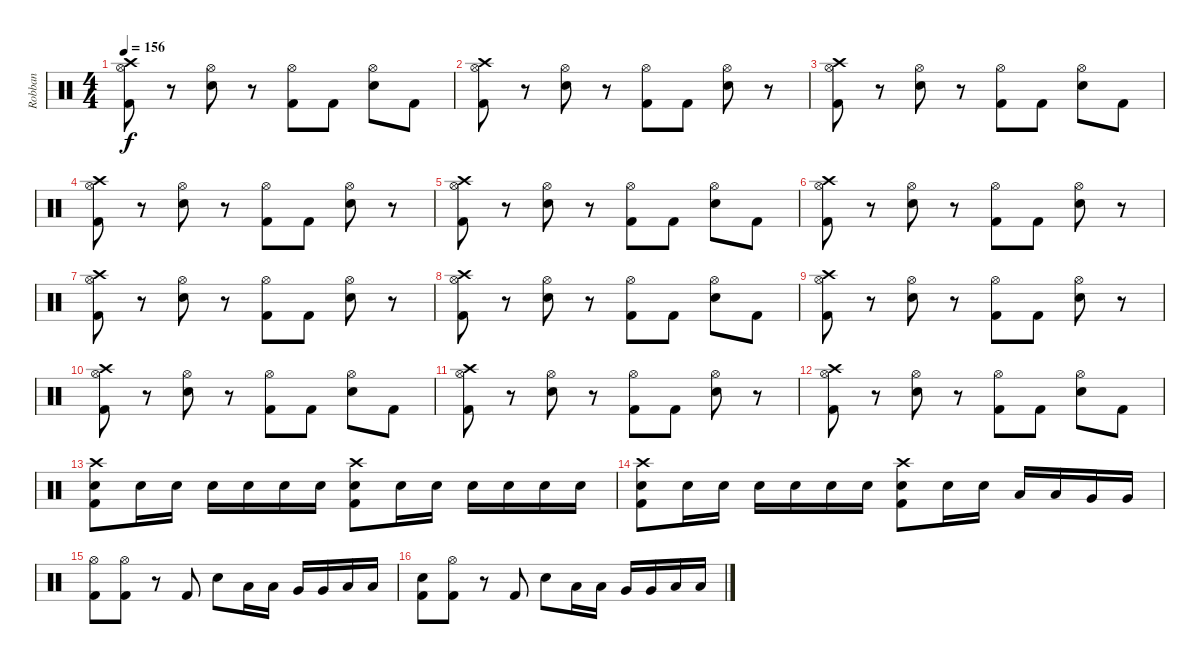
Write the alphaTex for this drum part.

\track ("Robban" "Robban") {instrument percussion}
\staff {score}
\articulation defaults
\ts (4 4)
\tempo 156
\clef neutral
\ks c
("Crash high (hit)" "Hi-Hat (open)" "Kick (hit) 2").8{dy f} r.8 ("Hi-Hat (open)" "Electric Snare (hit)").8 r.8 ("Hi-Hat (open)" "Kick (hit) 2").8 "Kick (hit) 2".8 ("Hi-Hat (open)" "Electric Snare (hit)").8 "Kick (hit) 2".8 |
("Crash high (hit)" "Hi-Hat (open)" "Kick (hit) 2").8 r.8 ("Hi-Hat (open)" "Electric Snare (hit)").8 r.8 ("Hi-Hat (open)" "Kick (hit) 2").8 "Kick (hit) 2".8 ("Hi-Hat (open)" "Electric Snare (hit)").8 r.8 |
("Crash high (hit)" "Hi-Hat (open)" "Kick (hit) 2").8 r.8 ("Hi-Hat (open)" "Electric Snare (hit)").8 r.8 ("Hi-Hat (open)" "Kick (hit) 2").8 "Kick (hit) 2".8 ("Hi-Hat (open)" "Electric Snare (hit)").8 "Kick (hit) 2".8 |
("Crash high (hit)" "Hi-Hat (open)" "Kick (hit) 2").8 r.8 ("Hi-Hat (open)" "Electric Snare (hit)").8 r.8 ("Hi-Hat (open)" "Kick (hit) 2").8 "Kick (hit) 2".8 ("Hi-Hat (open)" "Electric Snare (hit)").8 r.8 |
("Crash high (hit)" "Hi-Hat (open)" "Kick (hit) 2").8 r.8 ("Hi-Hat (open)" "Electric Snare (hit)").8 r.8 ("Hi-Hat (open)" "Kick (hit) 2").8 "Kick (hit) 2".8 ("Hi-Hat (open)" "Electric Snare (hit)").8 "Kick (hit) 2".8 |
("Crash high (hit)" "Hi-Hat (open)" "Kick (hit) 2").8 r.8 ("Hi-Hat (open)" "Electric Snare (hit)").8 r.8 ("Hi-Hat (open)" "Kick (hit) 2").8 "Kick (hit) 2".8 ("Hi-Hat (open)" "Electric Snare (hit)").8 r.8 |
("Crash high (hit)" "Hi-Hat (open)" "Kick (hit) 2").8 r.8 ("Hi-Hat (open)" "Electric Snare (hit)").8 r.8 ("Hi-Hat (open)" "Kick (hit) 2").8 "Kick (hit) 2".8 ("Hi-Hat (open)" "Electric Snare (hit)").8 r.8 |
("Crash high (hit)" "Hi-Hat (open)" "Kick (hit) 2").8 r.8 ("Hi-Hat (open)" "Electric Snare (hit)").8 r.8 ("Hi-Hat (open)" "Kick (hit) 2").8 "Kick (hit) 2".8 ("Hi-Hat (open)" "Electric Snare (hit)").8 "Kick (hit) 2".8 |
("Crash high (hit)" "Hi-Hat (open)" "Kick (hit) 2").8 r.8 ("Hi-Hat (open)" "Electric Snare (hit)").8 r.8 ("Hi-Hat (open)" "Kick (hit) 2").8 "Kick (hit) 2".8 ("Hi-Hat (open)" "Electric Snare (hit)").8 r.8 |
("Crash high (hit)" "Hi-Hat (open)" "Kick (hit) 2").8 r.8 ("Hi-Hat (open)" "Electric Snare (hit)").8 r.8 ("Hi-Hat (open)" "Kick (hit) 2").8 "Kick (hit) 2".8 ("Hi-Hat (open)" "Electric Snare (hit)").8 "Kick (hit) 2".8 |
("Crash high (hit)" "Hi-Hat (open)" "Kick (hit) 2").8 r.8 ("Hi-Hat (open)" "Electric Snare (hit)").8 r.8 ("Hi-Hat (open)" "Kick (hit) 2").8 "Kick (hit) 2".8 ("Hi-Hat (open)" "Electric Snare (hit)").8 r.8 |
("Crash high (hit)" "Hi-Hat (open)" "Kick (hit) 2").8 r.8 ("Hi-Hat (open)" "Electric Snare (hit)").8 r.8 ("Hi-Hat (open)" "Kick (hit) 2").8 "Kick (hit) 2".8 ("Hi-Hat (open)" "Electric Snare (hit)").8 "Kick (hit) 2".8 |
("Crash high (hit)" "Electric Snare (hit)" "Kick (hit) 2").8 "Electric Snare (hit)".16 "Electric Snare (hit)".16 "Electric Snare (hit)".16 "Electric Snare (hit)".16 "Electric Snare (hit)".16 "Electric Snare (hit)".16 ("Crash high (hit)" "Electric Snare (hit)" "Kick (hit) 2").8 "Electric Snare (hit)".16 "Electric Snare (hit)".16 "Electric Snare (hit)".16 "Electric Snare (hit)".16 "Electric Snare (hit)".16 "Electric Snare (hit)".16 |
("Crash high (hit)" "Electric Snare (hit)" "Kick (hit) 2").8 "Electric Snare (hit)".16 "Electric Snare (hit)".16 "Electric Snare (hit)".16 "Electric Snare (hit)".16 "Electric Snare (hit)".16 "Electric Snare (hit)".16 ("Crash high (hit)" "Electric Snare (hit)" "Kick (hit) 2").8 "Electric Snare (hit)".16 "Electric Snare (hit)".16 "Low Tom (hit)".16 "Low Tom (hit)".16 "Very Low Tom (hit)".16 "Very Low Tom (hit)".16 |
("Hi-Hat (open)" "Kick (hit) 2").8 ("Hi-Hat (open)" "Kick (hit) 2").8 r.8 "Kick (hit) 2".8 "Electric Snare (hit)".8 "Low Tom (hit)".16 "Low Tom (hit)".16 "Very Low Tom (hit)".16 "Very Low Tom (hit)".16 "Low Floor Tom (hit)".16 "Low Floor Tom (hit)".16 |
("Electric Snare (hit)" "Kick (hit) 2").8 ("Hi-Hat (open)" "Kick (hit) 2").8 r.8 "Kick (hit) 2".8 "Electric Snare (hit)".8 "Low Tom (hit)".16 "Low Tom (hit)".16 "Very Low Tom (hit)".16 "Very Low Tom (hit)".16 "Low Floor Tom (hit)".16 "Low Floor Tom (hit)".16
